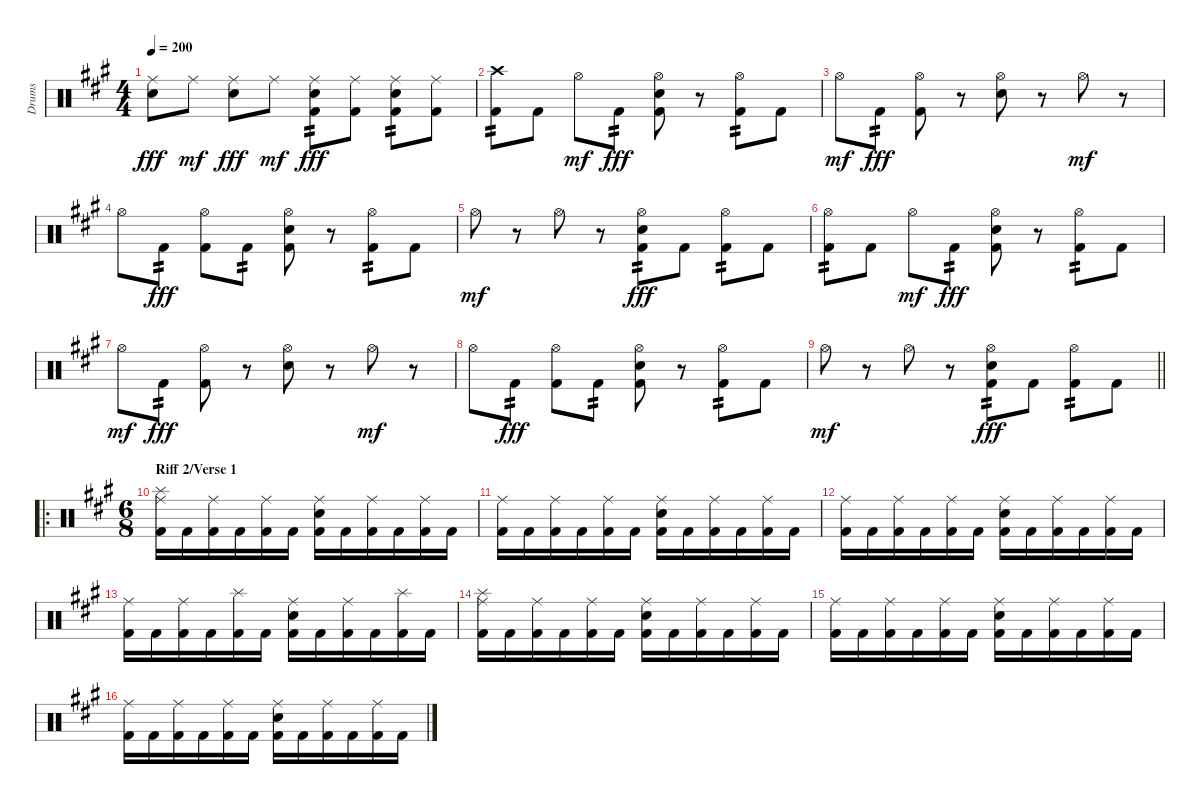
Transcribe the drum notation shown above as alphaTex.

\track ("Drums" "Drums") {instrument percussion}
\staff {score}
\articulation defaults
\ts (4 4)
\tempo 200
\clef neutral
\ks f#minor
("Ride (middle)" "Electric Snare (hit)").8{dy fff} "Ride (middle)".8{dy mf} ("Ride (middle)" "Electric Snare (hit)").8{dy fff} "Ride (middle)".8{dy mf} ("Ride (middle)" "Electric Snare (hit)" "Kick (hit) 2").8{tp 2 dy fff} ("Ride (middle)" "Kick (hit) 2").8 ("Ride (middle)" "Electric Snare (hit)" "Kick (hit) 2").8{tp 2} ("Ride (middle)" "Kick (hit) 2").8 |
("Crash high (hit)" "Kick (hit) 2").8{tp 2} "Kick (hit) 2".8 "Hi-Hat (open)".8{dy mf} "Kick (hit) 2".8{tp 2 dy fff} ("Hi-Hat (open)" "Electric Snare (hit)" "Kick (hit) 2").8 r.8 ("Hi-Hat (open)" "Kick (hit) 2").8{tp 2} "Kick (hit) 2".8 |
"Hi-Hat (open)".8{dy mf} "Kick (hit) 2".8{tp 2 dy fff} ("Hi-Hat (open)" "Kick (hit) 2").8 r.8 ("Hi-Hat (open)" "Electric Snare (hit)").8 r.8 "Hi-Hat (open)".8{dy mf} r.8 |
"Hi-Hat (open)".8 "Kick (hit) 2".8{tp 2 dy fff} ("Hi-Hat (open)" "Kick (hit) 2").8 "Kick (hit) 2".8{tp 2} ("Hi-Hat (open)" "Electric Snare (hit)" "Kick (hit) 2").8 r.8 ("Hi-Hat (open)" "Kick (hit) 2").8{tp 2} "Kick (hit) 2".8 |
"Hi-Hat (open)".8{dy mf} r.8 "Hi-Hat (open)".8 r.8 ("Hi-Hat (open)" "Electric Snare (hit)" "Kick (hit) 2").8{tp 2 dy fff} "Kick (hit) 2".8 ("Hi-Hat (open)" "Kick (hit) 2").8{tp 2} "Kick (hit) 2".8 |
("Hi-Hat (open)" "Kick (hit) 2").8{tp 2} "Kick (hit) 2".8 "Hi-Hat (open)".8{dy mf} "Kick (hit) 2".8{tp 2 dy fff} ("Hi-Hat (open)" "Electric Snare (hit)" "Kick (hit) 2").8 r.8 ("Hi-Hat (open)" "Kick (hit) 2").8{tp 2} "Kick (hit) 2".8 |
"Hi-Hat (open)".8{dy mf} "Kick (hit) 2".8{tp 2 dy fff} ("Hi-Hat (open)" "Kick (hit) 2").8 r.8 ("Hi-Hat (open)" "Electric Snare (hit)").8 r.8 "Hi-Hat (open)".8{dy mf} r.8 |
"Hi-Hat (open)".8 "Kick (hit) 2".8{tp 2 dy fff} ("Hi-Hat (open)" "Kick (hit) 2").8 "Kick (hit) 2".8{tp 2} ("Hi-Hat (open)" "Electric Snare (hit)" "Kick (hit) 2").8 r.8 ("Hi-Hat (open)" "Kick (hit) 2").8{tp 2} "Kick (hit) 2".8 |
\barLineRight lightlight "Hi-Hat (open)".8{dy mf}
r.8 "Hi-Hat (open)".8 r.8 ("Hi-Hat (open)" "Electric Snare (hit)" "Kick (hit) 2").8{tp 2 dy fff} "Kick (hit) 2".8 ("Hi-Hat (open)" "Kick (hit) 2").8{tp 2} "Kick (hit) 2".8 |
\ro
\ts (6 8)
\section ("" "Riff 2/Verse 1")
("Ride (middle)" "Splash (hit)" "Kick (hit) 2").16 "Kick (hit) 2".16 ("Ride (middle)" "Kick (hit) 2").16 "Kick (hit) 2".16 ("Ride (middle)" "Kick (hit) 2").16 "Kick (hit) 2".16 ("Ride (middle)" "Electric Snare (hit)" "Kick (hit) 2").16 "Kick (hit) 2".16 ("Ride (middle)" "Kick (hit) 2").16 "Kick (hit) 2".16 ("Ride (middle)" "Kick (hit) 2").16 "Kick (hit) 2".16 |
("Ride (middle)" "Kick (hit) 2").16 "Kick (hit) 2".16 ("Ride (middle)" "Kick (hit) 2").16 "Kick (hit) 2".16 ("Ride (middle)" "Kick (hit) 2").16 "Kick (hit) 2".16 ("Ride (middle)" "Electric Snare (hit)" "Kick (hit) 2").16 "Kick (hit) 2".16 ("Ride (middle)" "Kick (hit) 2").16 "Kick (hit) 2".16 ("Ride (middle)" "Kick (hit) 2").16 "Kick (hit) 2".16 |
("Ride (middle)" "Kick (hit) 2").16 "Kick (hit) 2".16 ("Ride (middle)" "Kick (hit) 2").16 "Kick (hit) 2".16 ("Ride (middle)" "Kick (hit) 2").16 "Kick (hit) 2".16 ("Ride (middle)" "Electric Snare (hit)" "Kick (hit) 2").16 "Kick (hit) 2".16 ("Ride (middle)" "Kick (hit) 2").16 "Kick (hit) 2".16 ("Ride (middle)" "Kick (hit) 2").16 "Kick (hit) 2".16 |
("Ride (middle)" "Kick (hit) 2").16 "Kick (hit) 2".16 ("Ride (middle)" "Kick (hit) 2").16 "Kick (hit) 2".16 ("Splash (hit)" "Kick (hit) 2").16 "Kick (hit) 2".16 ("Ride (middle)" "Electric Snare (hit)" "Kick (hit) 2").16 "Kick (hit) 2".16 ("Ride (middle)" "Kick (hit) 2").16 "Kick (hit) 2".16 ("Splash (hit)" "Kick (hit) 2").16 "Kick (hit) 2".16 |
("Ride (middle)" "Splash (hit)" "Kick (hit) 2").16 "Kick (hit) 2".16 ("Ride (middle)" "Kick (hit) 2").16 "Kick (hit) 2".16 ("Ride (middle)" "Kick (hit) 2").16 "Kick (hit) 2".16 ("Ride (middle)" "Electric Snare (hit)" "Kick (hit) 2").16 "Kick (hit) 2".16 ("Ride (middle)" "Kick (hit) 2").16 "Kick (hit) 2".16 ("Ride (middle)" "Kick (hit) 2").16 "Kick (hit) 2".16 |
("Ride (middle)" "Kick (hit) 2").16 "Kick (hit) 2".16 ("Ride (middle)" "Kick (hit) 2").16 "Kick (hit) 2".16 ("Ride (middle)" "Kick (hit) 2").16 "Kick (hit) 2".16 ("Ride (middle)" "Electric Snare (hit)" "Kick (hit) 2").16 "Kick (hit) 2".16 ("Ride (middle)" "Kick (hit) 2").16 "Kick (hit) 2".16 ("Ride (middle)" "Kick (hit) 2").16 "Kick (hit) 2".16 |
("Ride (middle)" "Kick (hit) 2").16 "Kick (hit) 2".16 ("Ride (middle)" "Kick (hit) 2").16 "Kick (hit) 2".16 ("Ride (middle)" "Kick (hit) 2").16 "Kick (hit) 2".16 ("Ride (middle)" "Electric Snare (hit)" "Kick (hit) 2").16 "Kick (hit) 2".16 ("Ride (middle)" "Kick (hit) 2").16 "Kick (hit) 2".16 ("Ride (middle)" "Kick (hit) 2").16 "Kick (hit) 2".16
